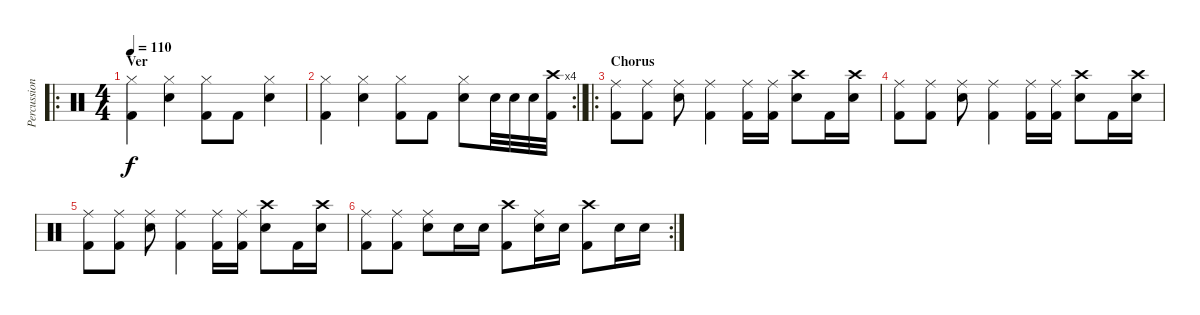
\track ("Percussion" "Percussion") {instrument percussion}
\staff {score}
\articulation defaults
\ro
\ts (4 4)
\section ("" "Ver")
\tempo 110
\clef neutral
\ks c
("Hi-Hat (closed)" "Kick (hit) 2").4{dy f} ("Hi-Hat (closed)" "Snare (hit) 2").4 ("Hi-Hat (closed)" "Kick (hit) 2").8 "Kick (hit) 2".8 ("Hi-Hat (closed)" "Snare (hit) 2").4 |
\rc 4
\barLineRight lightlight
("Hi-Hat (closed)" "Kick (hit) 2").4 ("Hi-Hat (closed)" "Snare (hit) 2").4 ("Hi-Hat (closed)" "Kick (hit) 2").8 "Kick (hit) 2".8 ("Hi-Hat (closed)" "Snare (hit) 2").8 "Snare (hit) 2".32 "Snare (hit) 2".32 "Snare (hit) 2".32 ("Crash high (hit)" "Kick (hit) 2").32 |
\ro
\section ("" "Chorus")
("Ride (middle)" "Kick (hit) 2").8 ("Ride (middle)" "Kick (hit) 2").8 ("Ride (middle)" "Snare (hit) 2").8 ("Ride (middle)" "Kick (hit) 2").4 ("Ride (middle)" "Kick (hit) 2").16 ("Ride (middle)" "Kick (hit) 2").16 ("Crash high (hit)" "Snare (hit) 2").8 "Kick (hit) 2".16 ("Crash high (hit)" "Snare (hit) 2").16 |
("Ride (middle)" "Kick (hit) 2").8 ("Ride (middle)" "Kick (hit) 2").8 ("Ride (middle)" "Snare (hit) 2").8 ("Ride (middle)" "Kick (hit) 2").4 ("Ride (middle)" "Kick (hit) 2").16 ("Ride (middle)" "Kick (hit) 2").16 ("Crash high (hit)" "Snare (hit) 2").8 "Kick (hit) 2".16 ("Crash high (hit)" "Snare (hit) 2").16 |
("Ride (middle)" "Kick (hit) 2").8 ("Ride (middle)" "Kick (hit) 2").8 ("Ride (middle)" "Snare (hit) 2").8 ("Ride (middle)" "Kick (hit) 2").4 ("Ride (middle)" "Kick (hit) 2").16 ("Ride (middle)" "Kick (hit) 2").16 ("Crash high (hit)" "Snare (hit) 2").8 "Kick (hit) 2".16 ("Crash high (hit)" "Snare (hit) 2").16 |
\rc 2
("Ride (middle)" "Kick (hit) 2").8 ("Ride (middle)" "Kick (hit) 2").8 ("Ride (middle)" "Snare (hit) 2").8 "Snare (hit) 2".16 "Snare (hit) 2".16 ("Crash high (hit)" "Kick (hit) 2").8 ("Ride (middle)" "Snare (hit) 2").16 "Snare (hit) 2".16 ("Crash high (hit)" "Kick (hit) 2").8 "Snare (hit) 2".16 "Snare (hit) 2".16
